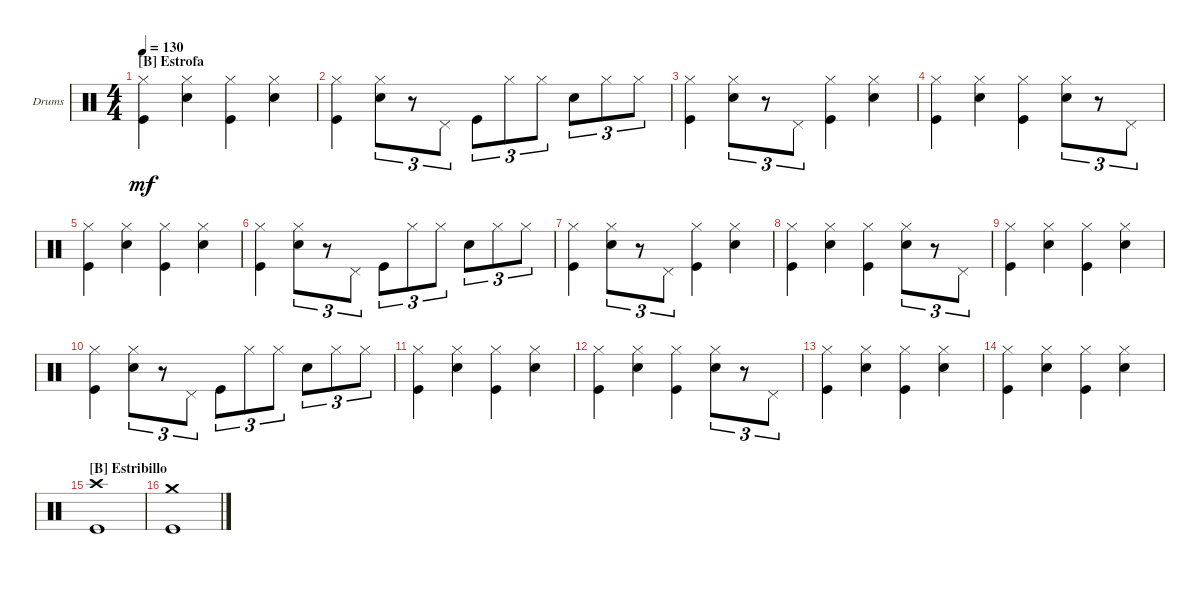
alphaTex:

\bracketExtendMode groupsimilarinstruments
\firstSystemTrackNameOrientation horizontal
\otherSystemsTrackNameOrientation horizontal
\track ("Drums Ghoul" "Drums") {instrument percussion}
\staff {score}
\articulation defaults
\ts (4 4)
\section ("B" "Estrofa")
\tempo 130
\clef neutral
\ks c
("Kick (hit)" "Hi-Hat (closed)").4{dy mf} ("Snare (hit) 2" "Hi-Hat (closed)").4 ("Kick (hit)" "Hi-Hat (closed)").4 ("Snare (hit) 2" "Hi-Hat (closed)").4 |
("Kick (hit)" "Hi-Hat (closed)").4 ("Snare (hit) 2" "Hi-Hat (closed)").8{tu (3 2)} r.8{tu (3 2)} "Pedal Hi-Hat (hit)".8{tu (3 2)} "Kick (hit)".8{tu (3 2)} "Hi-Hat (closed)".8{tu (3 2)} "Hi-Hat (closed)".8{tu (3 2)} "Snare (hit) 2".8{tu (3 2)} "Hi-Hat (closed)".8{tu (3 2)} "Hi-Hat (closed)".8{tu (3 2)} |
("Kick (hit)" "Hi-Hat (closed)").4 ("Snare (hit) 2" "Hi-Hat (closed)").8{tu (3 2)} r.8{tu (3 2)} "Pedal Hi-Hat (hit)".8{tu (3 2)} ("Kick (hit)" "Hi-Hat (closed)").4 ("Snare (hit) 2" "Hi-Hat (closed)").4 |
("Kick (hit)" "Hi-Hat (closed)").4 ("Snare (hit) 2" "Hi-Hat (closed)").4 ("Kick (hit)" "Hi-Hat (closed)").4 ("Snare (hit) 2" "Hi-Hat (closed)").8{tu (3 2)} r.8{tu (3 2)} "Pedal Hi-Hat (hit)".8{tu (3 2)} |
("Kick (hit)" "Hi-Hat (closed)").4 ("Snare (hit) 2" "Hi-Hat (closed)").4 ("Kick (hit)" "Hi-Hat (closed)").4 ("Snare (hit) 2" "Hi-Hat (closed)").4 |
("Kick (hit)" "Hi-Hat (closed)").4 ("Snare (hit) 2" "Hi-Hat (closed)").8{tu (3 2)} r.8{tu (3 2)} "Pedal Hi-Hat (hit)".8{tu (3 2)} "Kick (hit)".8{tu (3 2)} "Hi-Hat (closed)".8{tu (3 2)} "Hi-Hat (closed)".8{tu (3 2)} "Snare (hit) 2".8{tu (3 2)} "Hi-Hat (closed)".8{tu (3 2)} "Hi-Hat (closed)".8{tu (3 2)} |
("Kick (hit)" "Hi-Hat (closed)").4 ("Snare (hit) 2" "Hi-Hat (closed)").8{tu (3 2)} r.8{tu (3 2)} "Pedal Hi-Hat (hit)".8{tu (3 2)} ("Kick (hit)" "Hi-Hat (closed)").4 ("Snare (hit) 2" "Hi-Hat (closed)").4 |
("Kick (hit)" "Hi-Hat (closed)").4 ("Snare (hit) 2" "Hi-Hat (closed)").4 ("Kick (hit)" "Hi-Hat (closed)").4 ("Snare (hit) 2" "Hi-Hat (closed)").8{tu (3 2)} r.8{tu (3 2)} "Pedal Hi-Hat (hit)".8{tu (3 2)} |
("Kick (hit)" "Hi-Hat (closed)").4 ("Snare (hit) 2" "Hi-Hat (closed)").4 ("Kick (hit)" "Hi-Hat (closed)").4 ("Snare (hit) 2" "Hi-Hat (closed)").4 |
("Kick (hit)" "Hi-Hat (closed)").4 ("Snare (hit) 2" "Hi-Hat (closed)").8{tu (3 2)} r.8{tu (3 2)} "Pedal Hi-Hat (hit)".8{tu (3 2)} "Kick (hit)".8{tu (3 2)} "Hi-Hat (closed)".8{tu (3 2)} "Hi-Hat (closed)".8{tu (3 2)} "Snare (hit) 2".8{tu (3 2)} "Hi-Hat (closed)".8{tu (3 2)} "Hi-Hat (closed)".8{tu (3 2)} |
("Kick (hit)" "Hi-Hat (closed)").4 ("Snare (hit) 2" "Hi-Hat (closed)").4 ("Kick (hit)" "Hi-Hat (closed)").4 ("Snare (hit) 2" "Hi-Hat (closed)").4 |
("Kick (hit)" "Hi-Hat (closed)").4 ("Snare (hit) 2" "Hi-Hat (closed)").4 ("Kick (hit)" "Hi-Hat (closed)").4 ("Snare (hit) 2" "Hi-Hat (closed)").8{tu (3 2)} r.8{tu (3 2)} "Pedal Hi-Hat (hit)".8{tu (3 2)} |
("Kick (hit)" "Hi-Hat (closed)").4 ("Snare (hit) 2" "Hi-Hat (closed)").4 ("Kick (hit)" "Hi-Hat (closed)").4 ("Snare (hit) 2" "Hi-Hat (closed)").4 |
("Kick (hit)" "Hi-Hat (closed)").4 ("Snare (hit) 2" "Hi-Hat (closed)").4 ("Kick (hit)" "Hi-Hat (closed)").4 ("Snare (hit) 2" "Hi-Hat (closed)").4 |
\section ("B" "Estribillo")
("Kick (hit)" "Crash high (hit)").1 |
("Crash medium (hit)" "Kick (hit)").1
